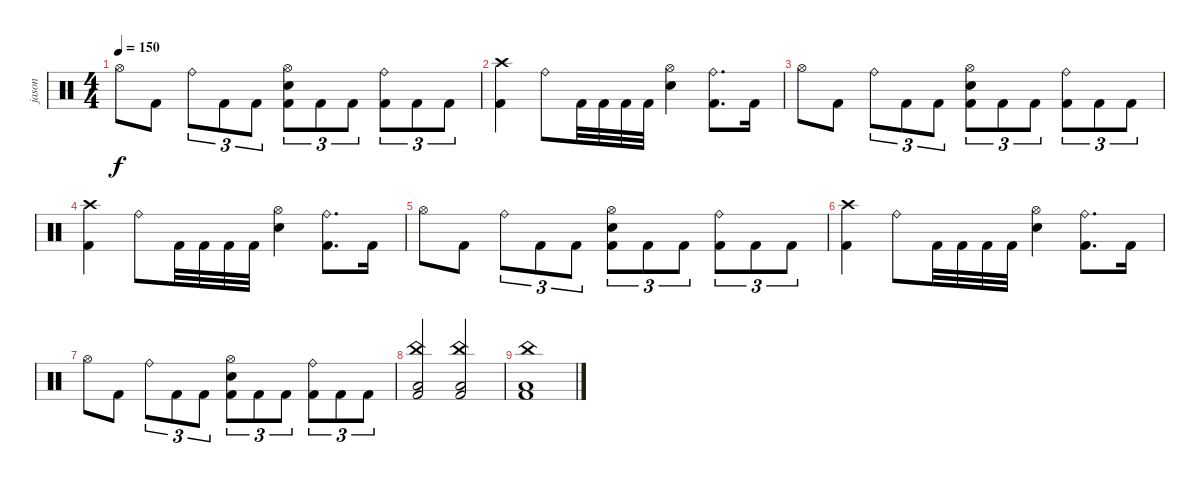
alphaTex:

\track ("jason" "jason") {instrument percussion}
\staff {score}
\articulation defaults
\ts (4 4)
\tempo 150
\clef neutral
\ks c "Hi-Hat (open)".8{dy f} "Kick (hit) 2".8 "Ride (bell)".8{tu (3 2)} "Kick (hit) 2".8{tu (3 2)} "Kick (hit) 2".8{tu (3 2)}
("Hi-Hat (open)" "Snare (hit) 2" "Kick (hit) 2").8{tu (3 2)} "Kick (hit) 2".8{tu (3 2)} "Kick (hit) 2".8{tu (3 2)} ("Ride (bell)" "Kick (hit) 2").8{tu (3 2)} "Kick (hit) 2".8{tu (3 2)} "Kick (hit) 2".8{tu (3 2)} |
("Crash high (hit)" "Kick (hit) 2").4 "Ride (bell)".8 "Kick (hit) 2".32 "Kick (hit) 2".32 "Kick (hit) 2".32 "Kick (hit) 2".32 ("Hi-Hat (open)" "Snare (hit) 2").4 ("Ride (bell)" "Kick (hit) 2").8{d} "Kick (hit) 2".16 |
"Hi-Hat (open)".8 "Kick (hit) 2".8 "Ride (bell)".8{tu (3 2)} "Kick (hit) 2".8{tu (3 2)} "Kick (hit) 2".8{tu (3 2)} ("Hi-Hat (open)" "Snare (hit) 2" "Kick (hit) 2").8{tu (3 2)} "Kick (hit) 2".8{tu (3 2)} "Kick (hit) 2".8{tu (3 2)} ("Ride (bell)" "Kick (hit) 2").8{tu (3 2)} "Kick (hit) 2".8{tu (3 2)} "Kick (hit) 2".8{tu (3 2)} |
("Crash high (hit)" "Kick (hit) 2").4 "Ride (bell)".8 "Kick (hit) 2".32 "Kick (hit) 2".32 "Kick (hit) 2".32 "Kick (hit) 2".32 ("Hi-Hat (open)" "Snare (hit) 2").4 ("Ride (bell)" "Kick (hit) 2").8{d} "Kick (hit) 2".16 |
"Hi-Hat (open)".8 "Kick (hit) 2".8 "Ride (bell)".8{tu (3 2)} "Kick (hit) 2".8{tu (3 2)} "Kick (hit) 2".8{tu (3 2)} ("Hi-Hat (open)" "Snare (hit) 2" "Kick (hit) 2").8{tu (3 2)} "Kick (hit) 2".8{tu (3 2)} "Kick (hit) 2".8{tu (3 2)} ("Ride (bell)" "Kick (hit) 2").8{tu (3 2)} "Kick (hit) 2".8{tu (3 2)} "Kick (hit) 2".8{tu (3 2)} |
("Crash high (hit)" "Kick (hit) 2").4 "Ride (bell)".8 "Kick (hit) 2".32 "Kick (hit) 2".32 "Kick (hit) 2".32 "Kick (hit) 2".32 ("Hi-Hat (open)" "Snare (hit) 2").4 ("Ride (bell)" "Kick (hit) 2").8{d} "Kick (hit) 2".16 |
"Hi-Hat (open)".8 "Kick (hit) 2".8 "Ride (bell)".8{tu (3 2)} "Kick (hit) 2".8{tu (3 2)} "Kick (hit) 2".8{tu (3 2)} ("Hi-Hat (open)" "Snare (hit) 2" "Kick (hit) 2").8{tu (3 2)} "Kick (hit) 2".8{tu (3 2)} "Kick (hit) 2".8{tu (3 2)} ("Ride (bell)" "Kick (hit) 2").8{tu (3 2)} "Kick (hit) 2".8{tu (3 2)} "Kick (hit) 2".8{tu (3 2)} |
("China (hit)" "Low Floor Tom (hit)" "Kick (hit) 2").2 ("China (hit)" "Low Floor Tom (hit)" "Kick (hit) 2").2 |
("China (hit)" "Low Floor Tom (hit)" "Kick (hit) 2").1
